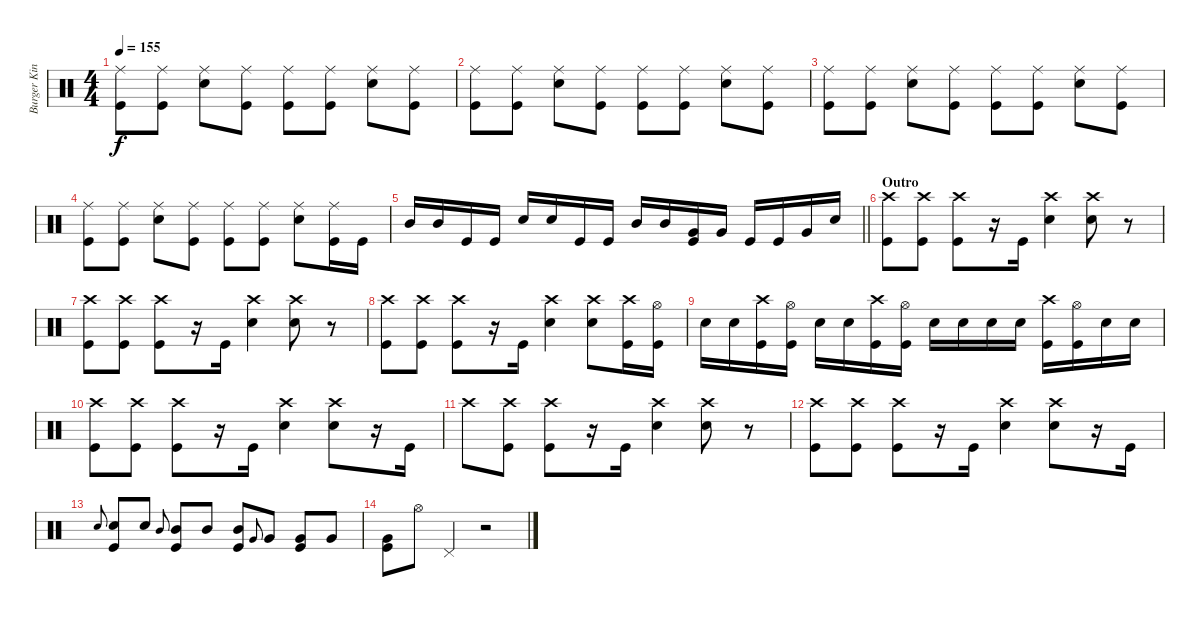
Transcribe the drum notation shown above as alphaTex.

\track ("Burger King" "Burger Kin") {instrument percussion}
\staff {score}
\articulation defaults
\ts (4 4)
\tempo 155
\clef neutral
\ks c
("Kick (hit)" "Ride (middle)").8{dy f} ("Kick (hit)" "Ride (middle)").8 ("Snare (hit) 2" "Ride (middle)").8 ("Kick (hit)" "Ride (middle)").8 ("Kick (hit)" "Ride (middle)").8 ("Kick (hit)" "Ride (middle)").8 ("Snare (hit) 2" "Ride (middle)").8 ("Kick (hit)" "Ride (middle)").8 |
("Kick (hit)" "Ride (middle)").8 ("Kick (hit)" "Ride (middle)").8 ("Snare (hit) 2" "Ride (middle)").8 ("Kick (hit)" "Ride (middle)").8 ("Kick (hit)" "Ride (middle)").8 ("Kick (hit)" "Ride (middle)").8 ("Snare (hit) 2" "Ride (middle)").8 ("Kick (hit)" "Ride (middle)").8 |
("Kick (hit)" "Ride (middle)").8 ("Kick (hit)" "Ride (middle)").8 ("Snare (hit) 2" "Ride (middle)").8 ("Kick (hit)" "Ride (middle)").8 ("Kick (hit)" "Ride (middle)").8 ("Kick (hit)" "Ride (middle)").8 ("Snare (hit) 2" "Ride (middle)").8 ("Kick (hit)" "Ride (middle)").8 |
("Kick (hit)" "Ride (middle)").8 ("Kick (hit)" "Ride (middle)").8 ("Snare (hit) 2" "Ride (middle)").8 ("Kick (hit)" "Ride (middle)").8 ("Kick (hit)" "Ride (middle)").8 ("Kick (hit)" "Ride (middle)").8 ("Snare (hit) 2" "Ride (middle)").8 ("Kick (hit)" "Ride (middle)").16 "Kick (hit)".16 |
\barLineRight lightlight "Mid Tom (hit)".16 "Mid Tom (hit)".16 "Kick (hit)".16 "Kick (hit)".16 "Snare (hit) 2".16 "Snare (hit) 2".16 "Kick (hit)".16 "Kick (hit)".16 "Mid Tom (hit)".16 "Mid Tom (hit)".16
("Kick (hit)" "Very Low Tom (hit)").16 "Very Low Tom (hit)".16 "Kick (hit)".16 "Kick (hit)".16 "Very Low Tom (hit)".16 "Snare (hit) 2".16 |
\section ("" "Outro")
("Kick (hit)" "Crash high (hit)").8 ("Crash high (hit)" "Kick (hit)").8 ("Kick (hit)" "Crash high (hit)").8 r.16 "Kick (hit)".16 ("Snare (hit) 2" "Crash high (hit)").4 ("Snare (hit) 2" "Crash high (hit)").8 r.8 |
("Kick (hit)" "Crash high (hit)").8 ("Crash high (hit)" "Kick (hit)").8 ("Kick (hit)" "Crash high (hit)").8 r.16 "Kick (hit)".16 ("Snare (hit) 2" "Crash high (hit)").4 ("Snare (hit) 2" "Crash high (hit)").8 r.8 |
("Kick (hit)" "Crash high (hit)").8 ("Crash high (hit)" "Kick (hit)").8 ("Kick (hit)" "Crash high (hit)").8 r.16 "Kick (hit)".16 ("Snare (hit) 2" "Crash high (hit)").4 ("Snare (hit) 2" "Crash high (hit)").8 ("Kick (hit)" "Crash high (hit)").16 ("Kick (hit)" "Hi-Hat (open)").16 |
"Snare (hit) 2".16 "Snare (hit) 2".16 ("Kick (hit)" "Crash high (hit)").16 ("Kick (hit)" "Hi-Hat (open)").16 "Snare (hit) 2".16 "Snare (hit) 2".16 ("Kick (hit)" "Crash high (hit)").16 ("Kick (hit)" "Hi-Hat (open)").16 "Snare (hit) 2".16 "Snare (hit) 2".16 "Snare (hit) 2".16 "Snare (hit) 2".16 ("Kick (hit)" "Crash high (hit)").16 ("Kick (hit)" "Hi-Hat (open)").16 "Snare (hit) 2".16 "Snare (hit) 2".16 |
("Kick (hit)" "Crash high (hit)").8 ("Crash high (hit)" "Kick (hit)").8 ("Kick (hit)" "Crash high (hit)").8 r.16 "Kick (hit)".16 ("Snare (hit) 2" "Crash high (hit)").4 ("Snare (hit) 2" "Crash high (hit)").8 r.16 "Kick (hit)".16 |
"Crash high (hit)".8 ("Crash high (hit)" "Kick (hit)").8 ("Kick (hit)" "Crash high (hit)").8 r.16 "Kick (hit)".16 ("Snare (hit) 2" "Crash high (hit)").4 ("Snare (hit) 2" "Crash high (hit)").8 r.8 |
("Kick (hit)" "Crash high (hit)").8 ("Crash high (hit)" "Kick (hit)").8 ("Kick (hit)" "Crash high (hit)").8 r.16 "Kick (hit)".16 ("Snare (hit) 2" "Crash high (hit)").4 ("Snare (hit) 2" "Crash high (hit)").8 r.16 "Kick (hit)".16 |
"Snare (hit) 2".8{gr onbeat} ("Snare (hit) 2" "Kick (hit)").8 "Snare (hit) 2".8 "Mid Tom (hit)".8{gr onbeat} ("Mid Tom (hit)" "Kick (hit)").8 "Mid Tom (hit)".8 ("Mid Tom (hit)" "Kick (hit)").8 "Very Low Tom (hit)".8{gr onbeat} "Very Low Tom (hit)".8 ("Very Low Tom (hit)" "Kick (hit)").8 "Very Low Tom (hit)".8 |
("Very Low Tom (hit)" "Kick (hit)").8 "Hi-Hat (open)".8 "Pedal Hi-Hat (hit)".4 r.2
